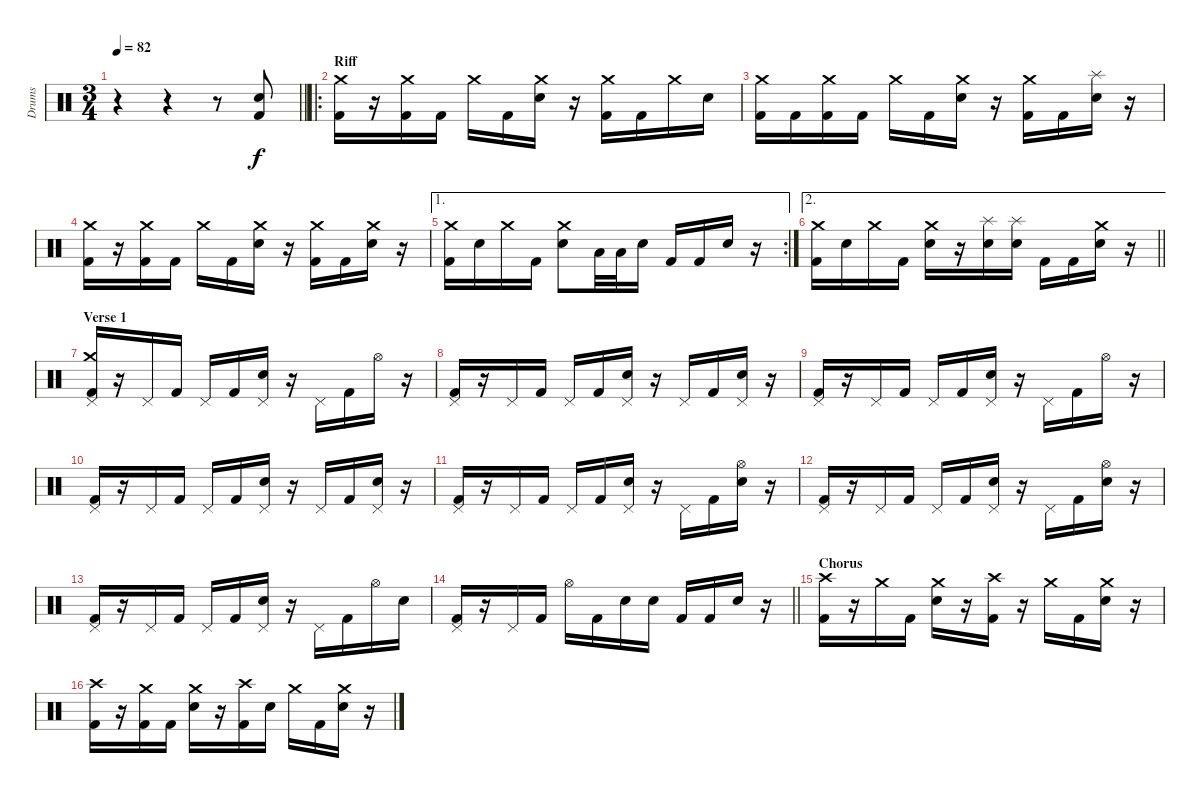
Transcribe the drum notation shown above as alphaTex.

\track ("Drums" "Drums") {instrument percussion}
\staff {score}
\articulation defaults
\ts (3 4)
\tempo 82
\clef neutral
\barLineRight lightlight
\ks c
r.4{dy f} r.4 r.8 ("Electric Snare (hit)" "Kick (hit) 2").8 |
\ro
\section ("" "Riff")
("Crash medium (hit)" "Kick (hit) 2").16 r.16 ("Crash medium (hit)" "Kick (hit) 2").16 "Kick (hit) 2".16 "Crash medium (hit)".16 "Kick (hit) 2".16 ("Crash medium (hit)" "Electric Snare (hit)").16 r.16 ("Crash medium (hit)" "Kick (hit) 2").16 "Kick (hit) 2".16 "Crash medium (hit)".16 "Electric Snare (hit)".16 |
("Crash medium (hit)" "Kick (hit) 2").16 "Kick (hit) 2".16 ("Crash medium (hit)" "Kick (hit) 2").16 "Kick (hit) 2".16 "Crash medium (hit)".16 "Kick (hit) 2".16 ("Crash medium (hit)" "Electric Snare (hit)").16 r.16 ("Crash medium (hit)" "Kick (hit) 2").16 "Kick (hit) 2".16 ("Splash (hit)" "Electric Snare (hit)").16 r.16 |
("Crash medium (hit)" "Kick (hit) 2").16 r.16 ("Crash medium (hit)" "Kick (hit) 2").16 "Kick (hit) 2".16 "Crash medium (hit)".16 "Kick (hit) 2".16 ("Crash medium (hit)" "Electric Snare (hit)").16 r.16 ("Crash medium (hit)" "Kick (hit) 2").16 "Kick (hit) 2".16 ("Crash medium (hit)" "Electric Snare (hit)").16 r.16 |
\ae 1
\rc 2
("Crash medium (hit)" "Kick (hit) 2").16 "Electric Snare (hit)".16 "Crash medium (hit)".16 "Kick (hit) 2".16 ("Crash medium (hit)" "Electric Snare (hit)").8 "Low Tom (hit)".32 "Low Tom (hit)".32 "Electric Snare (hit)".16 "Kick (hit) 2".16 "Kick (hit) 2".16 "Electric Snare (hit)".16 r.16 |
\ae 2
\barLineRight lightlight
("Crash medium (hit)" "Kick (hit) 2").16 "Electric Snare (hit)".16 "Crash medium (hit)".16 "Kick (hit) 2".16 ("Crash medium (hit)" "Electric Snare (hit)").16 r.16 ("Splash (hit)" "Electric Snare (hit)").16 ("Splash (hit)" "Electric Snare (hit)").16 "Kick (hit) 2".16 "Kick (hit) 2".16 ("Crash medium (hit)" "Electric Snare (hit)").16 r.16 |
\section ("" "Verse 1")
("Crash medium (hit)" "Pedal Hi-Hat (hit)" "Kick (hit) 2").16 r.16 "Pedal Hi-Hat (hit)".16 "Kick (hit) 2".16 "Pedal Hi-Hat (hit)".16 "Kick (hit) 2".16 ("Pedal Hi-Hat (hit)" "Electric Snare (hit)").16 r.16 "Pedal Hi-Hat (hit)".16 "Kick (hit) 2".16 "Hi-Hat (open)".16 r.16 |
("Pedal Hi-Hat (hit)" "Kick (hit) 2").16 r.16 "Pedal Hi-Hat (hit)".16 "Kick (hit) 2".16 "Pedal Hi-Hat (hit)".16 "Kick (hit) 2".16 ("Pedal Hi-Hat (hit)" "Electric Snare (hit)").16 r.16 "Pedal Hi-Hat (hit)".16 "Kick (hit) 2".16 ("Pedal Hi-Hat (hit)" "Electric Snare (hit)").16 r.16 |
("Pedal Hi-Hat (hit)" "Kick (hit) 2").16 r.16 "Pedal Hi-Hat (hit)".16 "Kick (hit) 2".16 "Pedal Hi-Hat (hit)".16 "Kick (hit) 2".16 ("Pedal Hi-Hat (hit)" "Electric Snare (hit)").16 r.16 "Pedal Hi-Hat (hit)".16 "Kick (hit) 2".16 "Hi-Hat (open)".16 r.16 |
("Pedal Hi-Hat (hit)" "Kick (hit) 2").16 r.16 "Pedal Hi-Hat (hit)".16 "Kick (hit) 2".16 "Pedal Hi-Hat (hit)".16 "Kick (hit) 2".16 ("Pedal Hi-Hat (hit)" "Electric Snare (hit)").16 r.16 "Pedal Hi-Hat (hit)".16 "Kick (hit) 2".16 ("Pedal Hi-Hat (hit)" "Electric Snare (hit)").16 r.16 |
("Pedal Hi-Hat (hit)" "Kick (hit) 2").16 r.16 "Pedal Hi-Hat (hit)".16 "Kick (hit) 2".16 "Pedal Hi-Hat (hit)".16 "Kick (hit) 2".16 ("Pedal Hi-Hat (hit)" "Electric Snare (hit)").16 r.16 "Pedal Hi-Hat (hit)".16 "Kick (hit) 2".16 ("Hi-Hat (open)" "Electric Snare (hit)").16 r.16 |
("Pedal Hi-Hat (hit)" "Kick (hit) 2").16 r.16 "Pedal Hi-Hat (hit)".16 "Kick (hit) 2".16 "Pedal Hi-Hat (hit)".16 "Kick (hit) 2".16 ("Pedal Hi-Hat (hit)" "Electric Snare (hit)").16 r.16 "Pedal Hi-Hat (hit)".16 "Kick (hit) 2".16 ("Hi-Hat (open)" "Electric Snare (hit)").16 r.16 |
("Pedal Hi-Hat (hit)" "Kick (hit) 2").16 r.16 "Pedal Hi-Hat (hit)".16 "Kick (hit) 2".16 "Pedal Hi-Hat (hit)".16 "Kick (hit) 2".16 ("Pedal Hi-Hat (hit)" "Electric Snare (hit)").16 r.16 "Pedal Hi-Hat (hit)".16 "Kick (hit) 2".16 "Hi-Hat (open)".16 "Electric Snare (hit)".16 |
\barLineRight lightlight
("Pedal Hi-Hat (hit)" "Kick (hit) 2").16 r.16 "Pedal Hi-Hat (hit)".16 "Kick (hit) 2".16 "Hi-Hat (open)".16 "Kick (hit) 2".16 "Electric Snare (hit)".16 "Electric Snare (hit)".16 "Kick (hit) 2".16 "Kick (hit) 2".16 "Electric Snare (hit)".16 r.16 |
\section ("" "Chorus")
("Crash high (hit)" "Kick (hit) 2").16 r.16 "Crash medium (hit)".16 "Kick (hit) 2".16 ("Crash medium (hit)" "Electric Snare (hit)").16 r.16 ("Crash high (hit)" "Kick (hit) 2").16 r.16 "Crash medium (hit)".16 "Kick (hit) 2".16 ("Crash medium (hit)" "Electric Snare (hit)").16 r.16 |
("Crash high (hit)" "Kick (hit) 2").16 r.16 ("Crash medium (hit)" "Kick (hit) 2").16 "Kick (hit) 2".16 ("Crash medium (hit)" "Electric Snare (hit)").16 r.16 ("Crash high (hit)" "Kick (hit) 2").16 "Electric Snare (hit)".16 "Crash medium (hit)".16 "Kick (hit) 2".16 ("Crash medium (hit)" "Electric Snare (hit)").16 r.16
